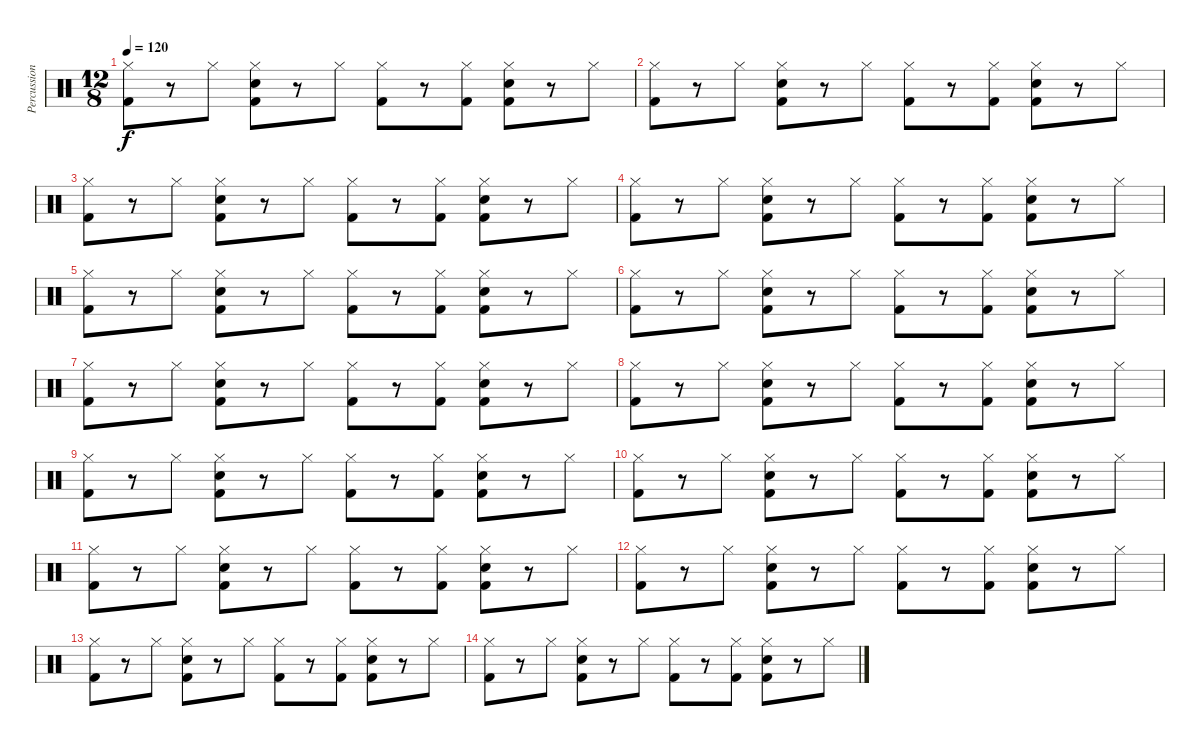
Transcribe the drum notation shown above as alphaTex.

\track ("Percussions" "Percussion") {instrument percussion}
\staff {score}
\articulation defaults
\ts (12 8)
\tempo 120
\clef neutral
\ks c
("Kick (hit) 2" "Hi-Hat (closed)").8{dy f} r.8 "Hi-Hat (closed)".8 ("Snare (hit) 2" "Kick (hit) 2" "Hi-Hat (closed)").8 r.8 "Hi-Hat (closed)".8 ("Kick (hit) 2" "Hi-Hat (closed)").8 r.8 ("Kick (hit) 2" "Hi-Hat (closed)").8 ("Snare (hit) 2" "Kick (hit) 2" "Hi-Hat (closed)").8 r.8 "Hi-Hat (closed)".8 |
("Kick (hit) 2" "Hi-Hat (closed)").8 r.8 "Hi-Hat (closed)".8 ("Snare (hit) 2" "Kick (hit) 2" "Hi-Hat (closed)").8 r.8 "Hi-Hat (closed)".8 ("Kick (hit) 2" "Hi-Hat (closed)").8 r.8 ("Kick (hit) 2" "Hi-Hat (closed)").8 ("Snare (hit) 2" "Kick (hit) 2" "Hi-Hat (closed)").8 r.8 "Hi-Hat (closed)".8 |
("Kick (hit) 2" "Hi-Hat (closed)").8 r.8 "Hi-Hat (closed)".8 ("Snare (hit) 2" "Kick (hit) 2" "Hi-Hat (closed)").8 r.8 "Hi-Hat (closed)".8 ("Kick (hit) 2" "Hi-Hat (closed)").8 r.8 ("Kick (hit) 2" "Hi-Hat (closed)").8 ("Snare (hit) 2" "Kick (hit) 2" "Hi-Hat (closed)").8 r.8 "Hi-Hat (closed)".8 |
("Kick (hit) 2" "Hi-Hat (closed)").8 r.8 "Hi-Hat (closed)".8 ("Snare (hit) 2" "Kick (hit) 2" "Hi-Hat (closed)").8 r.8 "Hi-Hat (closed)".8 ("Kick (hit) 2" "Hi-Hat (closed)").8 r.8 ("Kick (hit) 2" "Hi-Hat (closed)").8 ("Snare (hit) 2" "Kick (hit) 2" "Hi-Hat (closed)").8 r.8 "Hi-Hat (closed)".8 |
("Kick (hit) 2" "Hi-Hat (closed)").8 r.8 "Hi-Hat (closed)".8 ("Snare (hit) 2" "Kick (hit) 2" "Hi-Hat (closed)").8 r.8 "Hi-Hat (closed)".8 ("Kick (hit) 2" "Hi-Hat (closed)").8 r.8 ("Kick (hit) 2" "Hi-Hat (closed)").8 ("Snare (hit) 2" "Kick (hit) 2" "Hi-Hat (closed)").8 r.8 "Hi-Hat (closed)".8 |
("Kick (hit) 2" "Hi-Hat (closed)").8 r.8 "Hi-Hat (closed)".8 ("Snare (hit) 2" "Kick (hit) 2" "Hi-Hat (closed)").8 r.8 "Hi-Hat (closed)".8 ("Kick (hit) 2" "Hi-Hat (closed)").8 r.8 ("Kick (hit) 2" "Hi-Hat (closed)").8 ("Snare (hit) 2" "Kick (hit) 2" "Hi-Hat (closed)").8 r.8 "Hi-Hat (closed)".8 |
("Kick (hit) 2" "Hi-Hat (closed)").8 r.8 "Hi-Hat (closed)".8 ("Snare (hit) 2" "Kick (hit) 2" "Hi-Hat (closed)").8 r.8 "Hi-Hat (closed)".8 ("Kick (hit) 2" "Hi-Hat (closed)").8 r.8 ("Kick (hit) 2" "Hi-Hat (closed)").8 ("Snare (hit) 2" "Kick (hit) 2" "Hi-Hat (closed)").8 r.8 "Hi-Hat (closed)".8 |
("Kick (hit) 2" "Hi-Hat (closed)").8 r.8 "Hi-Hat (closed)".8 ("Snare (hit) 2" "Kick (hit) 2" "Hi-Hat (closed)").8 r.8 "Hi-Hat (closed)".8 ("Kick (hit) 2" "Hi-Hat (closed)").8 r.8 ("Kick (hit) 2" "Hi-Hat (closed)").8 ("Snare (hit) 2" "Kick (hit) 2" "Hi-Hat (closed)").8 r.8 "Hi-Hat (closed)".8 |
("Kick (hit) 2" "Hi-Hat (closed)").8 r.8 "Hi-Hat (closed)".8 ("Snare (hit) 2" "Kick (hit) 2" "Hi-Hat (closed)").8 r.8 "Hi-Hat (closed)".8 ("Kick (hit) 2" "Hi-Hat (closed)").8 r.8 ("Kick (hit) 2" "Hi-Hat (closed)").8 ("Snare (hit) 2" "Kick (hit) 2" "Hi-Hat (closed)").8 r.8 "Hi-Hat (closed)".8 |
("Kick (hit) 2" "Hi-Hat (closed)").8 r.8 "Hi-Hat (closed)".8 ("Snare (hit) 2" "Kick (hit) 2" "Hi-Hat (closed)").8 r.8 "Hi-Hat (closed)".8 ("Kick (hit) 2" "Hi-Hat (closed)").8 r.8 ("Kick (hit) 2" "Hi-Hat (closed)").8 ("Snare (hit) 2" "Kick (hit) 2" "Hi-Hat (closed)").8 r.8 "Hi-Hat (closed)".8 |
("Kick (hit) 2" "Hi-Hat (closed)").8 r.8 "Hi-Hat (closed)".8 ("Snare (hit) 2" "Kick (hit) 2" "Hi-Hat (closed)").8 r.8 "Hi-Hat (closed)".8 ("Kick (hit) 2" "Hi-Hat (closed)").8 r.8 ("Kick (hit) 2" "Hi-Hat (closed)").8 ("Snare (hit) 2" "Kick (hit) 2" "Hi-Hat (closed)").8 r.8 "Hi-Hat (closed)".8 |
("Kick (hit) 2" "Hi-Hat (closed)").8 r.8 "Hi-Hat (closed)".8 ("Snare (hit) 2" "Kick (hit) 2" "Hi-Hat (closed)").8 r.8 "Hi-Hat (closed)".8 ("Kick (hit) 2" "Hi-Hat (closed)").8 r.8 ("Kick (hit) 2" "Hi-Hat (closed)").8 ("Snare (hit) 2" "Kick (hit) 2" "Hi-Hat (closed)").8 r.8 "Hi-Hat (closed)".8 |
("Kick (hit) 2" "Hi-Hat (closed)").8 r.8 "Hi-Hat (closed)".8 ("Snare (hit) 2" "Kick (hit) 2" "Hi-Hat (closed)").8 r.8 "Hi-Hat (closed)".8 ("Kick (hit) 2" "Hi-Hat (closed)").8 r.8 ("Kick (hit) 2" "Hi-Hat (closed)").8 ("Snare (hit) 2" "Kick (hit) 2" "Hi-Hat (closed)").8 r.8 "Hi-Hat (closed)".8 |
("Kick (hit) 2" "Hi-Hat (closed)").8 r.8 "Hi-Hat (closed)".8 ("Snare (hit) 2" "Kick (hit) 2" "Hi-Hat (closed)").8 r.8 "Hi-Hat (closed)".8 ("Kick (hit) 2" "Hi-Hat (closed)").8 r.8 ("Kick (hit) 2" "Hi-Hat (closed)").8 ("Snare (hit) 2" "Kick (hit) 2" "Hi-Hat (closed)").8 r.8 "Hi-Hat (closed)".8
